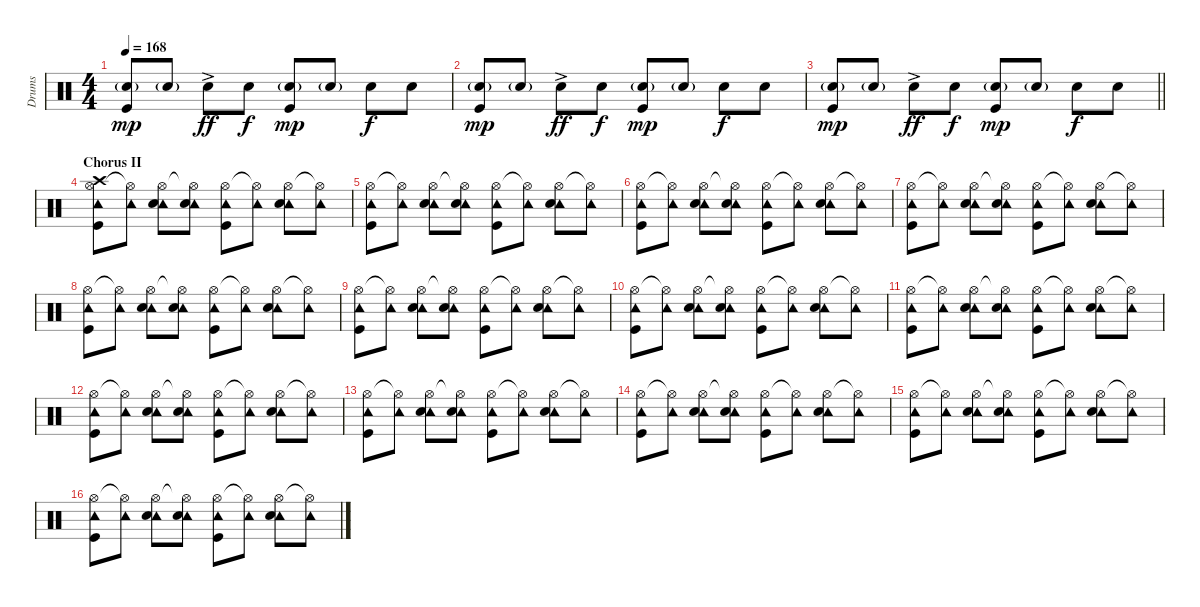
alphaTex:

\track ("Drums" "Drums") {instrument percussion}
\staff {score}
\articulation defaults
\ts (4 4)
\tempo 168
\clef neutral
\ks c
("Snare (hit) 2"{g} "Kick (hit)").8{dy mp} "Snare (hit) 2"{g}.8 "Snare (hit) 2"{ac}.8{dy ff} "Snare (hit) 2".8{dy f} ("Snare (hit) 2"{g} "Kick (hit)").8{dy mp} "Snare (hit) 2"{g}.8 "Snare (hit) 2".8{dy f} "Snare (hit) 2".8 |
("Snare (hit) 2"{g} "Kick (hit)").8{dy mp} "Snare (hit) 2"{g}.8 "Snare (hit) 2"{ac}.8{dy ff} "Snare (hit) 2".8{dy f} ("Snare (hit) 2"{g} "Kick (hit)").8{dy mp} "Snare (hit) 2"{g}.8 "Snare (hit) 2".8{dy f} "Snare (hit) 2".8 |
\barLineRight lightlight
("Snare (hit) 2"{g} "Kick (hit)").8{dy mp} "Snare (hit) 2"{g}.8 "Snare (hit) 2"{ac}.8{dy ff} "Snare (hit) 2".8{dy f} ("Snare (hit) 2"{g} "Kick (hit)").8{dy mp} "Snare (hit) 2"{g}.8 "Snare (hit) 2".8{dy f} "Snare (hit) 2".8 |
\section ("" "Chorus II")
("Hi-Hat (open)" "Tambourine (hit)" "Crash high (hit)" "Kick (hit)").8 ("Hi-Hat (open)"{t} "Tambourine (hit)").8 ("Hi-Hat (open)" "Tambourine (hit)" "Snare (hit) 2").8 ("Hi-Hat (open)"{t} "Tambourine (hit)" "Snare (hit) 2").8 ("Hi-Hat (open)" "Tambourine (hit)" "Kick (hit)").8 ("Hi-Hat (open)"{t} "Tambourine (hit)").8 ("Hi-Hat (open)" "Tambourine (hit)" "Snare (hit) 2").8 ("Hi-Hat (open)"{t} "Tambourine (hit)").8 |
("Hi-Hat (open)" "Tambourine (hit)" "Kick (hit)").8 ("Hi-Hat (open)"{t} "Tambourine (hit)").8 ("Hi-Hat (open)" "Tambourine (hit)" "Snare (hit) 2").8 ("Hi-Hat (open)"{t} "Tambourine (hit)" "Snare (hit) 2").8 ("Hi-Hat (open)" "Tambourine (hit)" "Kick (hit)").8 ("Hi-Hat (open)"{t} "Tambourine (hit)").8 ("Hi-Hat (open)" "Tambourine (hit)" "Snare (hit) 2").8 ("Hi-Hat (open)"{t} "Tambourine (hit)").8 |
("Hi-Hat (open)" "Tambourine (hit)" "Kick (hit)").8 ("Hi-Hat (open)"{t} "Tambourine (hit)").8 ("Hi-Hat (open)" "Tambourine (hit)" "Snare (hit) 2").8 ("Hi-Hat (open)"{t} "Tambourine (hit)" "Snare (hit) 2").8 ("Hi-Hat (open)" "Tambourine (hit)" "Kick (hit)").8 ("Hi-Hat (open)"{t} "Tambourine (hit)").8 ("Hi-Hat (open)" "Tambourine (hit)" "Snare (hit) 2").8 ("Hi-Hat (open)"{t} "Tambourine (hit)").8 |
("Hi-Hat (open)" "Tambourine (hit)" "Kick (hit)").8 ("Hi-Hat (open)"{t} "Tambourine (hit)").8 ("Hi-Hat (open)" "Tambourine (hit)" "Snare (hit) 2").8 ("Hi-Hat (open)"{t} "Tambourine (hit)" "Snare (hit) 2").8 ("Hi-Hat (open)" "Tambourine (hit)" "Kick (hit)").8 ("Hi-Hat (open)"{t} "Tambourine (hit)").8 ("Hi-Hat (open)" "Tambourine (hit)" "Snare (hit) 2").8 ("Hi-Hat (open)"{t} "Tambourine (hit)").8 |
("Hi-Hat (open)" "Tambourine (hit)" "Kick (hit)").8 ("Hi-Hat (open)"{t} "Tambourine (hit)").8 ("Hi-Hat (open)" "Tambourine (hit)" "Snare (hit) 2").8 ("Hi-Hat (open)"{t} "Tambourine (hit)" "Snare (hit) 2").8 ("Hi-Hat (open)" "Tambourine (hit)" "Kick (hit)").8 ("Hi-Hat (open)"{t} "Tambourine (hit)").8 ("Hi-Hat (open)" "Tambourine (hit)" "Snare (hit) 2").8 ("Hi-Hat (open)"{t} "Tambourine (hit)").8 |
("Hi-Hat (open)" "Tambourine (hit)" "Kick (hit)").8 ("Hi-Hat (open)"{t} "Tambourine (hit)").8 ("Hi-Hat (open)" "Tambourine (hit)" "Snare (hit) 2").8 ("Hi-Hat (open)"{t} "Tambourine (hit)" "Snare (hit) 2").8 ("Hi-Hat (open)" "Tambourine (hit)" "Kick (hit)").8 ("Hi-Hat (open)"{t} "Tambourine (hit)").8 ("Hi-Hat (open)" "Tambourine (hit)" "Snare (hit) 2").8 ("Hi-Hat (open)"{t} "Tambourine (hit)").8 |
("Hi-Hat (open)" "Tambourine (hit)" "Kick (hit)").8 ("Hi-Hat (open)"{t} "Tambourine (hit)").8 ("Hi-Hat (open)" "Tambourine (hit)" "Snare (hit) 2").8 ("Hi-Hat (open)"{t} "Tambourine (hit)" "Snare (hit) 2").8 ("Hi-Hat (open)" "Tambourine (hit)" "Kick (hit)").8 ("Hi-Hat (open)"{t} "Tambourine (hit)").8 ("Hi-Hat (open)" "Tambourine (hit)" "Snare (hit) 2").8 ("Hi-Hat (open)"{t} "Tambourine (hit)").8 |
("Hi-Hat (open)" "Tambourine (hit)" "Kick (hit)").8 ("Hi-Hat (open)"{t} "Tambourine (hit)").8 ("Hi-Hat (open)" "Tambourine (hit)" "Snare (hit) 2").8 ("Hi-Hat (open)"{t} "Tambourine (hit)" "Snare (hit) 2").8 ("Hi-Hat (open)" "Tambourine (hit)" "Kick (hit)").8 ("Hi-Hat (open)"{t} "Tambourine (hit)").8 ("Hi-Hat (open)" "Tambourine (hit)" "Snare (hit) 2").8 ("Hi-Hat (open)"{t} "Tambourine (hit)").8 |
("Hi-Hat (open)" "Tambourine (hit)" "Kick (hit)").8 ("Hi-Hat (open)"{t} "Tambourine (hit)").8 ("Hi-Hat (open)" "Tambourine (hit)" "Snare (hit) 2").8 ("Hi-Hat (open)"{t} "Tambourine (hit)" "Snare (hit) 2").8 ("Hi-Hat (open)" "Tambourine (hit)" "Kick (hit)").8 ("Hi-Hat (open)"{t} "Tambourine (hit)").8 ("Hi-Hat (open)" "Tambourine (hit)" "Snare (hit) 2").8 ("Hi-Hat (open)"{t} "Tambourine (hit)").8 |
("Hi-Hat (open)" "Tambourine (hit)" "Kick (hit)").8 ("Hi-Hat (open)"{t} "Tambourine (hit)").8 ("Hi-Hat (open)" "Tambourine (hit)" "Snare (hit) 2").8 ("Hi-Hat (open)"{t} "Tambourine (hit)" "Snare (hit) 2").8 ("Hi-Hat (open)" "Tambourine (hit)" "Kick (hit)").8 ("Hi-Hat (open)"{t} "Tambourine (hit)").8 ("Hi-Hat (open)" "Tambourine (hit)" "Snare (hit) 2").8 ("Hi-Hat (open)"{t} "Tambourine (hit)").8 |
("Hi-Hat (open)" "Tambourine (hit)" "Kick (hit)").8 ("Hi-Hat (open)"{t} "Tambourine (hit)").8 ("Hi-Hat (open)" "Tambourine (hit)" "Snare (hit) 2").8 ("Hi-Hat (open)"{t} "Tambourine (hit)" "Snare (hit) 2").8 ("Hi-Hat (open)" "Tambourine (hit)" "Kick (hit)").8 ("Hi-Hat (open)"{t} "Tambourine (hit)").8 ("Hi-Hat (open)" "Tambourine (hit)" "Snare (hit) 2").8 ("Hi-Hat (open)"{t} "Tambourine (hit)").8 |
("Hi-Hat (open)" "Tambourine (hit)" "Kick (hit)").8 ("Hi-Hat (open)"{t} "Tambourine (hit)").8 ("Hi-Hat (open)" "Tambourine (hit)" "Snare (hit) 2").8 ("Hi-Hat (open)"{t} "Tambourine (hit)" "Snare (hit) 2").8 ("Hi-Hat (open)" "Tambourine (hit)" "Kick (hit)").8 ("Hi-Hat (open)"{t} "Tambourine (hit)").8 ("Hi-Hat (open)" "Tambourine (hit)" "Snare (hit) 2").8 ("Hi-Hat (open)"{t} "Tambourine (hit)").8 |
("Hi-Hat (open)" "Tambourine (hit)" "Kick (hit)").8 ("Hi-Hat (open)"{t} "Tambourine (hit)").8 ("Hi-Hat (open)" "Tambourine (hit)" "Snare (hit) 2").8 ("Hi-Hat (open)"{t} "Tambourine (hit)" "Snare (hit) 2").8 ("Hi-Hat (open)" "Tambourine (hit)" "Kick (hit)").8 ("Hi-Hat (open)"{t} "Tambourine (hit)").8 ("Hi-Hat (open)" "Tambourine (hit)" "Snare (hit) 2").8 ("Hi-Hat (open)"{t} "Tambourine (hit)").8
